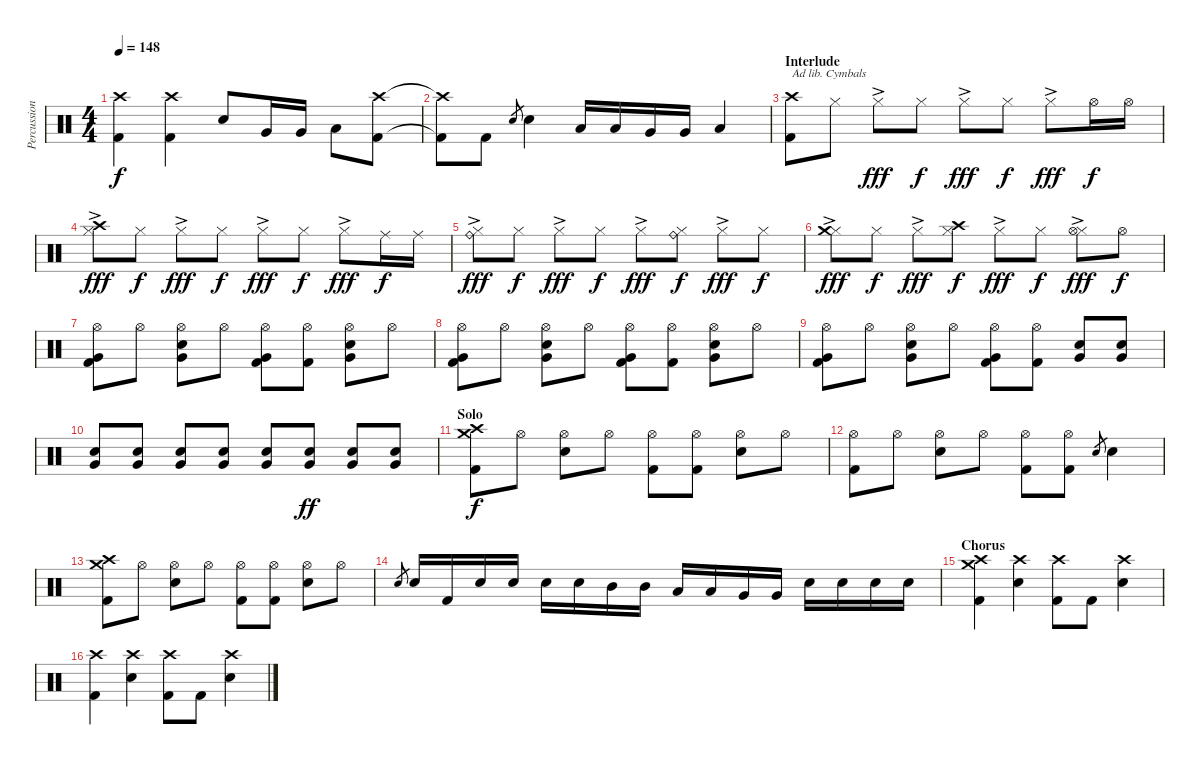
\track ("Percussion" "Percussion") {instrument percussion}
\staff {score}
\articulation defaults
\ts (4 4)
\tempo 148
\clef neutral
\ks c
("Crash high (hit)" "Kick (hit) 2").4{dy f} ("Crash high (hit)" "Kick (hit) 2").4 "Snare (hit) 2".8 "Very Low Tom (hit)".16 "Very Low Tom (hit)".16 "Low Floor Tom (hit)".8 ("Crash high (hit)" "Kick (hit) 2").8 |
("Crash high (hit)"{t} "Kick (hit) 2"{t}).8 "Kick (hit) 2".8 "Snare (hit) 2".8{gr} "Snare (hit) 2".4 "Low Tom (hit)".16 "Low Tom (hit)".16 "Very Low Tom (hit)".16 "Very Low Tom (hit)".16 "Low Floor Tom (hit)".4 |
\section ("" "Interlude")
("Crash high (hit)" "Kick (hit) 2").8{txt "Ad lib. Cymbals"} "Hi-Hat (closed)".8 "Hi-Hat (closed)"{ac}.8{dy fff} "Hi-Hat (closed)".8{dy f} "Hi-Hat (closed)"{ac}.8{dy fff} "Hi-Hat (closed)".8{dy f} "Hi-Hat (closed)"{ac}.8{dy fff} "Hi-Hat (open)".16{dy f} "Hi-Hat (open)".16 |
("Hi-Hat (closed)"{ac} "Crash high (hit)").8{dy fff} "Hi-Hat (closed)".8{dy f} "Hi-Hat (closed)"{ac}.8{dy fff} "Hi-Hat (closed)".8{dy f} "Hi-Hat (closed)"{ac}.8{dy fff} "Hi-Hat (closed)".8{dy f} "Hi-Hat (closed)"{ac}.8{dy fff} "Ride (middle)".16{dy f} "Ride (middle)".16 |
("Hi-Hat (closed)"{ac} "Ride (bell)").8{dy fff} "Hi-Hat (closed)".8{dy f} "Hi-Hat (closed)"{ac}.8{dy fff} "Hi-Hat (closed)".8{dy f} "Hi-Hat (closed)"{ac}.8{dy fff} ("Hi-Hat (closed)" "Ride (bell)").8{dy f} "Hi-Hat (closed)"{ac}.8{dy fff} "Hi-Hat (closed)".8{dy f} |
("Hi-Hat (closed)"{ac} "Crash medium (hit)").8{dy fff} "Hi-Hat (closed)".8{dy f} "Hi-Hat (closed)"{ac}.8{dy fff} ("Hi-Hat (closed)" "Crash high (hit)").8{dy f} "Hi-Hat (closed)"{ac}.8{dy fff} "Hi-Hat (closed)".8{dy f} ("Hi-Hat (closed)"{ac} "Hi-Hat (open)").8{dy fff} "Hi-Hat (open)".8{dy f} |
("Hi-Hat (open)" "Very Low Tom (hit)" "Kick (hit) 2").8 "Hi-Hat (open)".8 ("Hi-Hat (open)" "Snare (hit) 2" "Very Low Tom (hit)").8 "Hi-Hat (open)".8 ("Hi-Hat (open)" "Very Low Tom (hit)" "Kick (hit) 2").8 ("Hi-Hat (open)" "Kick (hit) 2").8 ("Hi-Hat (open)" "Snare (hit) 2" "Very Low Tom (hit)").8 "Hi-Hat (open)".8 |
("Hi-Hat (open)" "Very Low Tom (hit)" "Kick (hit) 2").8 "Hi-Hat (open)".8 ("Hi-Hat (open)" "Snare (hit) 2" "Very Low Tom (hit)").8 "Hi-Hat (open)".8 ("Hi-Hat (open)" "Very Low Tom (hit)" "Kick (hit) 2").8 ("Hi-Hat (open)" "Kick (hit) 2").8 ("Hi-Hat (open)" "Snare (hit) 2" "Very Low Tom (hit)").8 "Hi-Hat (open)".8 |
("Hi-Hat (open)" "Very Low Tom (hit)" "Kick (hit) 2").8 "Hi-Hat (open)".8 ("Hi-Hat (open)" "Snare (hit) 2" "Very Low Tom (hit)").8 "Hi-Hat (open)".8 ("Hi-Hat (open)" "Very Low Tom (hit)" "Kick (hit) 2").8 ("Hi-Hat (open)" "Kick (hit) 2").8 ("Snare (hit) 2" "Very Low Tom (hit)").8 ("Snare (hit) 2" "Very Low Tom (hit)").8 |
("Snare (hit) 2" "Very Low Tom (hit)").8 ("Snare (hit) 2" "Very Low Tom (hit)").8 ("Snare (hit) 2" "Very Low Tom (hit)").8 ("Snare (hit) 2" "Very Low Tom (hit)").8 ("Snare (hit) 2" "Very Low Tom (hit)").8 ("Snare (hit) 2" "Very Low Tom (hit)").8{dy ff} ("Snare (hit) 2" "Very Low Tom (hit)").8 ("Snare (hit) 2" "Very Low Tom (hit)").8 |
\section ("" "Solo")
("Crash high (hit)" "Crash medium (hit)" "Kick (hit) 2").8{dy f} "Hi-Hat (open)".8 ("Hi-Hat (open)" "Snare (hit) 2").8 "Hi-Hat (open)".8 ("Hi-Hat (open)" "Kick (hit) 2").8 ("Hi-Hat (open)" "Kick (hit) 2").8 ("Hi-Hat (open)" "Snare (hit) 2").8 "Hi-Hat (open)".8 |
("Hi-Hat (open)" "Kick (hit) 2").8 "Hi-Hat (open)".8 ("Hi-Hat (open)" "Snare (hit) 2").8 "Hi-Hat (open)".8 ("Hi-Hat (open)" "Kick (hit) 2").8 ("Hi-Hat (open)" "Kick (hit) 2").8 "Snare (hit) 2".8{gr} "Snare (hit) 2".4 |
("Crash high (hit)" "Crash medium (hit)" "Kick (hit) 2").8 "Hi-Hat (open)".8 ("Hi-Hat (open)" "Snare (hit) 2").8 "Hi-Hat (open)".8 ("Hi-Hat (open)" "Kick (hit) 2").8 ("Hi-Hat (open)" "Kick (hit) 2").8 ("Hi-Hat (open)" "Snare (hit) 2").8 "Hi-Hat (open)".8 |
"Snare (hit) 2".8{gr} "Snare (hit) 2".16 "Kick (hit) 2".16 "Snare (hit) 2".16 "Snare (hit) 2".16 "Snare (hit) 2".16 "Snare (hit) 2".16 "Mid Tom (hit)".16 "Mid Tom (hit)".16 "Low Tom (hit)".16 "Low Tom (hit)".16 "Very Low Tom (hit)".16 "Very Low Tom (hit)".16 "Snare (hit) 2".16 "Snare (hit) 2".16 "Snare (hit) 2".16 "Snare (hit) 2".16 |
\section ("" "Chorus")
("Crash high (hit)" "Crash medium (hit)" "Kick (hit) 2").4 ("Crash high (hit)" "Snare (hit) 2").4 ("Crash high (hit)" "Kick (hit) 2").8 "Kick (hit) 2".8 ("Crash high (hit)" "Snare (hit) 2").4 |
("Crash high (hit)" "Kick (hit) 2").4 ("Crash high (hit)" "Snare (hit) 2").4 ("Crash high (hit)" "Kick (hit) 2").8 "Kick (hit) 2".8 ("Crash high (hit)" "Snare (hit) 2").4
